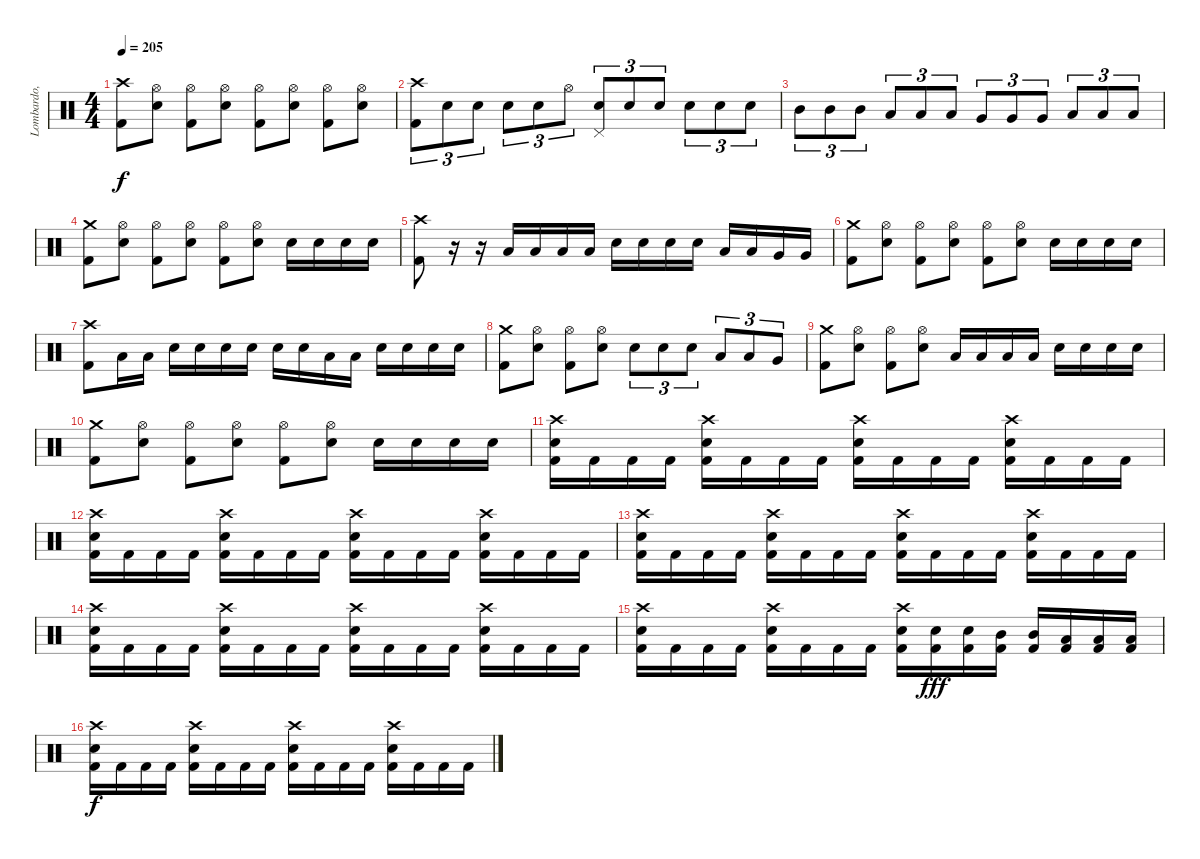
\track ("Lombardo, Dave" "Lombardo, ") {instrument percussion}
\staff {score}
\articulation defaults
\ts (4 4)
\tempo 205
\clef neutral
\ks c
("Crash high (hit)" "Kick (hit) 2").8{dy f} ("Electric Snare (hit)" "Hi-Hat (open)").8 ("Kick (hit) 2" "Hi-Hat (open)").8 ("Electric Snare (hit)" "Hi-Hat (open)").8 ("Kick (hit) 2" "Hi-Hat (open)").8 ("Electric Snare (hit)" "Hi-Hat (open)").8 ("Kick (hit) 2" "Hi-Hat (open)").8 ("Electric Snare (hit)" "Hi-Hat (open)").8 |
("Crash high (hit)" "Kick (hit) 2").8{tu (3 2)} "Electric Snare (hit)".8{tu (3 2)} "Electric Snare (hit)".8{tu (3 2)} "Electric Snare (hit)".8{tu (3 2)} "Electric Snare (hit)".8{tu (3 2)} "Hi-Hat (open)".8{tu (3 2)} ("Pedal Hi-Hat (hit)" "Electric Snare (hit)").8{tu (3 2)} "Electric Snare (hit)".8{tu (3 2)} "Electric Snare (hit)".8{tu (3 2)} "Electric Snare (hit)".8{tu (3 2)} "Electric Snare (hit)".8{tu (3 2)} "Electric Snare (hit)".8{tu (3 2)} |
"Mid Tom (hit)".8{tu (3 2)} "Mid Tom (hit)".8{tu (3 2)} "Mid Tom (hit)".8{tu (3 2)} "Low Tom (hit)".8{tu (3 2)} "Low Tom (hit)".8{tu (3 2)} "Low Tom (hit)".8{tu (3 2)} "Very Low Tom (hit)".8{tu (3 2)} "Very Low Tom (hit)".8{tu (3 2)} "Very Low Tom (hit)".8{tu (3 2)} "Low Floor Tom (hit)".8{tu (3 2)} "Low Floor Tom (hit)".8{tu (3 2)} "Low Floor Tom (hit)".8{tu (3 2)} |
("Crash medium (hit)" "Kick (hit) 2").8 ("Electric Snare (hit)" "Hi-Hat (open)").8 ("Kick (hit) 2" "Hi-Hat (open)").8 ("Electric Snare (hit)" "Hi-Hat (open)").8 ("Kick (hit) 2" "Hi-Hat (open)").8 ("Electric Snare (hit)" "Hi-Hat (open)").8 "Electric Snare (hit)".16 "Electric Snare (hit)".16 "Electric Snare (hit)".16 "Electric Snare (hit)".16 |
("Crash high (hit)" "Kick (hit) 2").8 r.16 r.16 "Low Tom (hit)".16 "Low Tom (hit)".16 "Low Tom (hit)".16 "Low Tom (hit)".16 "Electric Snare (hit)".16 "Electric Snare (hit)".16 "Electric Snare (hit)".16 "Electric Snare (hit)".16 "Low Tom (hit)".16 "Low Tom (hit)".16 "Very Low Tom (hit)".16 "Very Low Tom (hit)".16 |
("Crash medium (hit)" "Kick (hit) 2").8 ("Electric Snare (hit)" "Hi-Hat (open)").8 ("Kick (hit) 2" "Hi-Hat (open)").8 ("Electric Snare (hit)" "Hi-Hat (open)").8 ("Kick (hit) 2" "Hi-Hat (open)").8 ("Electric Snare (hit)" "Hi-Hat (open)").8 "Electric Snare (hit)".16 "Electric Snare (hit)".16 "Electric Snare (hit)".16 "Electric Snare (hit)".16 |
("Crash high (hit)" "Kick (hit) 2").8 "Low Tom (hit)".16 "Low Tom (hit)".16 "Electric Snare (hit)".16 "Electric Snare (hit)".16 "Electric Snare (hit)".16 "Electric Snare (hit)".16 "Electric Snare (hit)".16 "Electric Snare (hit)".16 "Low Tom (hit)".16 "Low Tom (hit)".16 "Electric Snare (hit)".16 "Electric Snare (hit)".16 "Electric Snare (hit)".16 "Electric Snare (hit)".16 |
("Crash medium (hit)" "Kick (hit) 2").8 ("Electric Snare (hit)" "Hi-Hat (open)").8 ("Kick (hit) 2" "Hi-Hat (open)").8 ("Electric Snare (hit)" "Hi-Hat (open)").8 "Electric Snare (hit)".8{tu (3 2)} "Electric Snare (hit)".8{tu (3 2)} "Electric Snare (hit)".8{tu (3 2)} "Low Tom (hit)".8{tu (3 2)} "Low Tom (hit)".8{tu (3 2)} "Very Low Tom (hit)".8{tu (3 2)} |
("Crash medium (hit)" "Kick (hit) 2").8 ("Electric Snare (hit)" "Hi-Hat (open)").8 ("Kick (hit) 2" "Hi-Hat (open)").8 ("Electric Snare (hit)" "Hi-Hat (open)").8 "Low Tom (hit)".16 "Low Tom (hit)".16 "Low Tom (hit)".16 "Low Tom (hit)".16 "Electric Snare (hit)".16 "Electric Snare (hit)".16 "Electric Snare (hit)".16 "Electric Snare (hit)".16 |
("Crash medium (hit)" "Kick (hit) 2").8 ("Electric Snare (hit)" "Hi-Hat (open)").8 ("Kick (hit) 2" "Hi-Hat (open)").8 ("Electric Snare (hit)" "Hi-Hat (open)").8 ("Kick (hit) 2" "Hi-Hat (open)").8 ("Electric Snare (hit)" "Hi-Hat (open)").8 "Electric Snare (hit)".16 "Electric Snare (hit)".16 "Electric Snare (hit)".16 "Electric Snare (hit)".16 |
("Crash high (hit)" "Electric Snare (hit)" "Kick (hit) 2").16 "Kick (hit) 2".16 "Kick (hit) 2".16 "Kick (hit) 2".16 ("Crash high (hit)" "Electric Snare (hit)" "Kick (hit) 2").16 "Kick (hit) 2".16 "Kick (hit) 2".16 "Kick (hit) 2".16 ("Crash high (hit)" "Electric Snare (hit)" "Kick (hit) 2").16 "Kick (hit) 2".16 "Kick (hit) 2".16 "Kick (hit) 2".16 ("Crash high (hit)" "Electric Snare (hit)" "Kick (hit) 2").16 "Kick (hit) 2".16 "Kick (hit) 2".16 "Kick (hit) 2".16 |
("Crash high (hit)" "Electric Snare (hit)" "Kick (hit) 2").16 "Kick (hit) 2".16 "Kick (hit) 2".16 "Kick (hit) 2".16 ("Crash high (hit)" "Electric Snare (hit)" "Kick (hit) 2").16 "Kick (hit) 2".16 "Kick (hit) 2".16 "Kick (hit) 2".16 ("Crash high (hit)" "Electric Snare (hit)" "Kick (hit) 2").16 "Kick (hit) 2".16 "Kick (hit) 2".16 "Kick (hit) 2".16 ("Crash high (hit)" "Electric Snare (hit)" "Kick (hit) 2").16 "Kick (hit) 2".16 "Kick (hit) 2".16 "Kick (hit) 2".16 |
("Crash high (hit)" "Electric Snare (hit)" "Kick (hit) 2").16 "Kick (hit) 2".16 "Kick (hit) 2".16 "Kick (hit) 2".16 ("Crash high (hit)" "Electric Snare (hit)" "Kick (hit) 2").16 "Kick (hit) 2".16 "Kick (hit) 2".16 "Kick (hit) 2".16 ("Crash high (hit)" "Electric Snare (hit)" "Kick (hit) 2").16 "Kick (hit) 2".16 "Kick (hit) 2".16 "Kick (hit) 2".16 ("Crash high (hit)" "Electric Snare (hit)" "Kick (hit) 2").16 "Kick (hit) 2".16 "Kick (hit) 2".16 "Kick (hit) 2".16 |
("Crash high (hit)" "Electric Snare (hit)" "Kick (hit) 2").16 "Kick (hit) 2".16 "Kick (hit) 2".16 "Kick (hit) 2".16 ("Crash high (hit)" "Electric Snare (hit)" "Kick (hit) 2").16 "Kick (hit) 2".16 "Kick (hit) 2".16 "Kick (hit) 2".16 ("Crash high (hit)" "Electric Snare (hit)" "Kick (hit) 2").16 "Kick (hit) 2".16 "Kick (hit) 2".16 "Kick (hit) 2".16 ("Crash high (hit)" "Electric Snare (hit)" "Kick (hit) 2").16 "Kick (hit) 2".16 "Kick (hit) 2".16 "Kick (hit) 2".16 |
("Crash high (hit)" "Electric Snare (hit)" "Kick (hit) 2").16 "Kick (hit) 2".16 "Kick (hit) 2".16 "Kick (hit) 2".16 ("Crash high (hit)" "Electric Snare (hit)" "Kick (hit) 2").16 "Kick (hit) 2".16 "Kick (hit) 2".16 "Kick (hit) 2".16 ("Crash high (hit)" "Electric Snare (hit)" "Kick (hit) 2").16 ("Electric Snare (hit)" "Kick (hit) 2").16{dy fff} ("Electric Snare (hit)" "Kick (hit) 2").16 ("Mid Tom (hit)" "Kick (hit) 2").16 ("Mid Tom (hit)" "Kick (hit) 2").16 ("Low Tom (hit)" "Kick (hit) 2").16 ("Low Tom (hit)" "Kick (hit) 2").16 ("Low Tom (hit)" "Kick (hit) 2").16 |
("Crash high (hit)" "Electric Snare (hit)" "Kick (hit) 2").16{dy f} "Kick (hit) 2".16 "Kick (hit) 2".16 "Kick (hit) 2".16 ("Crash high (hit)" "Electric Snare (hit)" "Kick (hit) 2").16 "Kick (hit) 2".16 "Kick (hit) 2".16 "Kick (hit) 2".16 ("Crash high (hit)" "Electric Snare (hit)" "Kick (hit) 2").16 "Kick (hit) 2".16 "Kick (hit) 2".16 "Kick (hit) 2".16 ("Crash high (hit)" "Electric Snare (hit)" "Kick (hit) 2").16 "Kick (hit) 2".16 "Kick (hit) 2".16 "Kick (hit) 2".16
